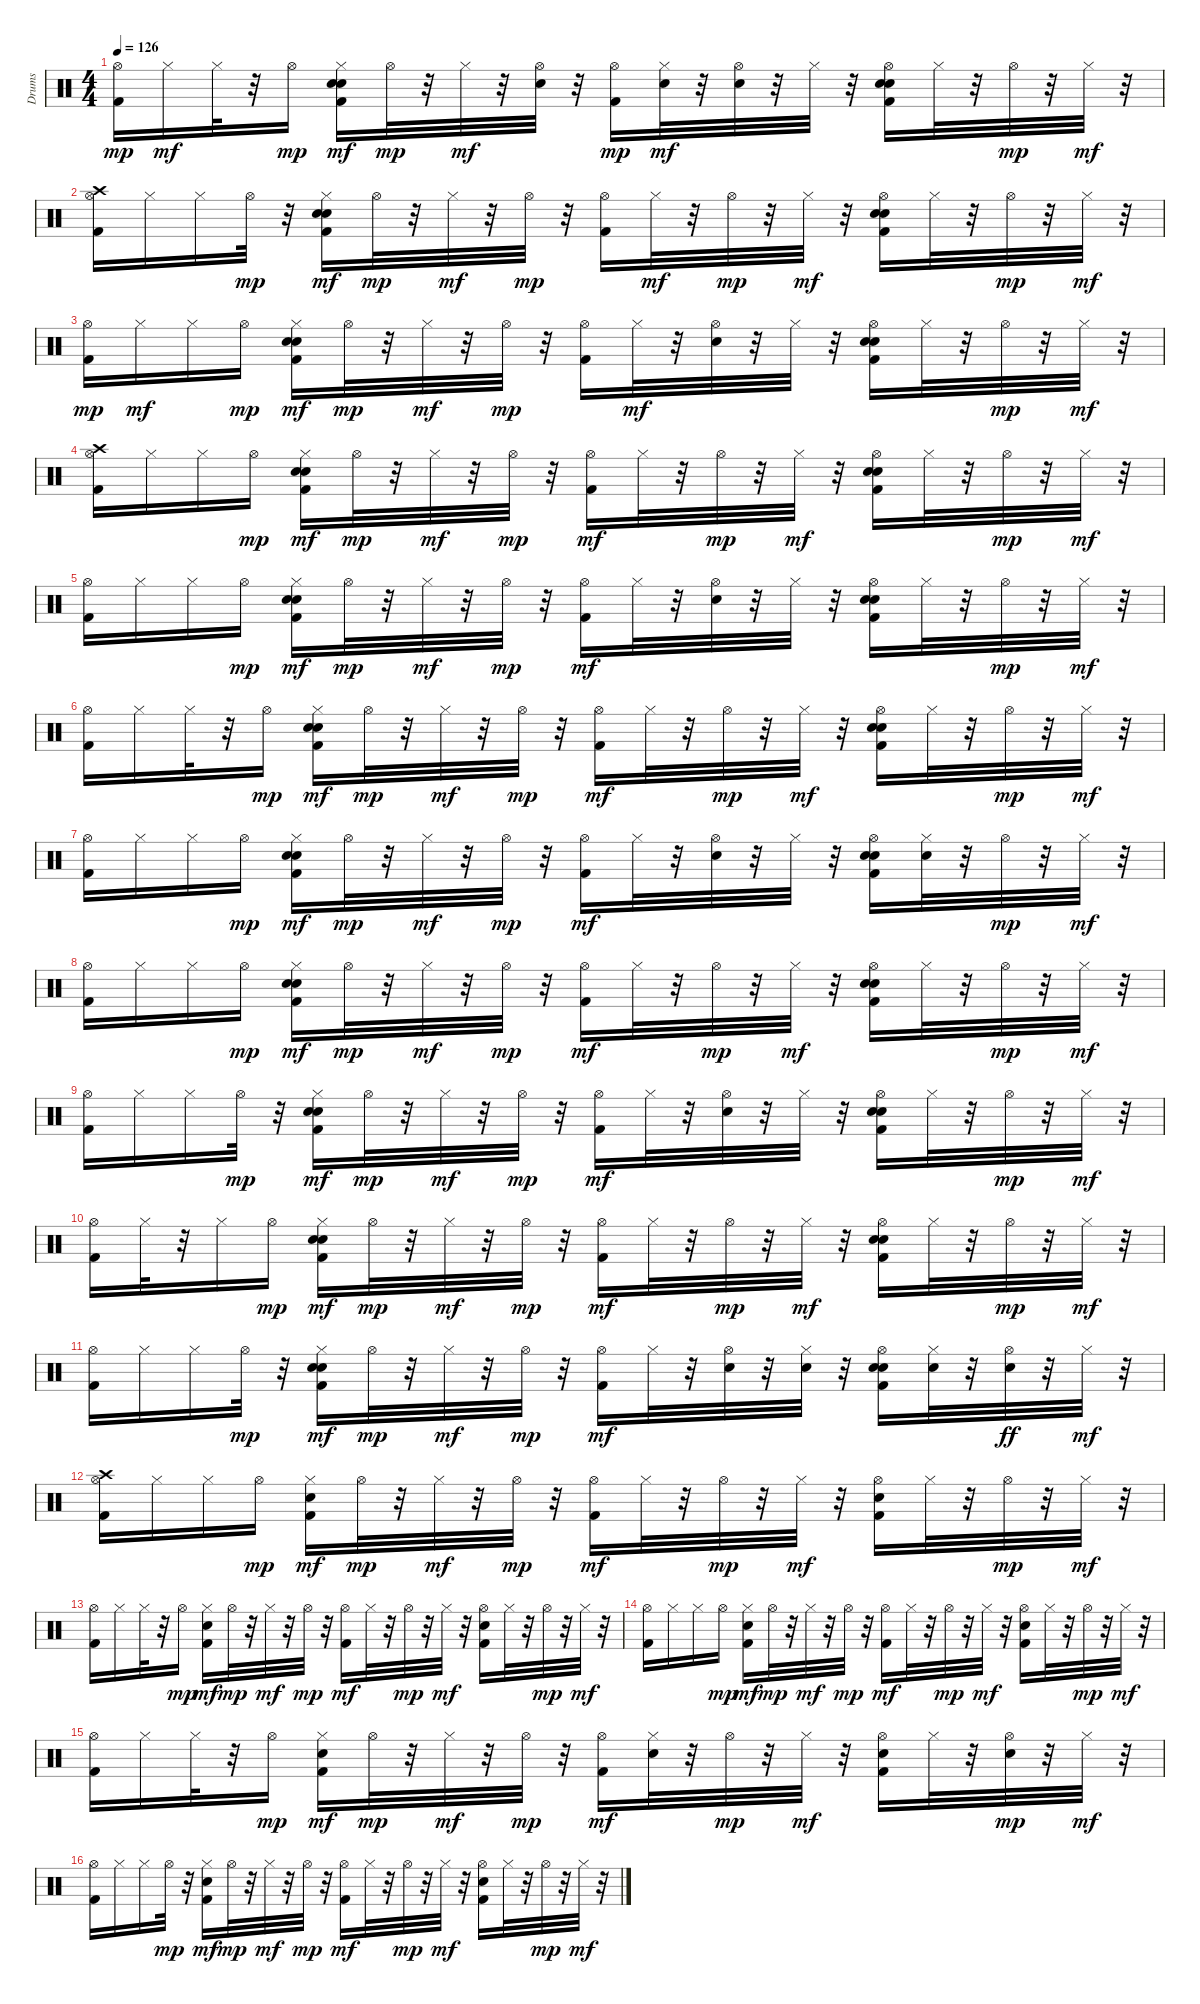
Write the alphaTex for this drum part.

\track ("Drums" "Drums") {instrument percussion}
\staff {score}
\articulation defaults
\ts (4 4)
\tempo 126
\clef neutral
\ks c
("Kick (hit) 2" "Hi-Hat (open)").16{dy mp} "Hi-Hat (closed)".16{dy mf} "Hi-Hat (closed)".32 r.32 "Hi-Hat (open)".16{dy mp} ("Kick (hit) 2" "Hi-Hat (closed)" "Hand Clap (hit)" "Electric Snare (hit)").16{dy mf} "Hi-Hat (open)".32{dy mp} r.32 "Hi-Hat (closed)".32{dy mf} r.32 ("Hi-Hat (open)" "Snare (hit) 2").32 r.32 ("Kick (hit) 2" "Hi-Hat (open)").16{dy mp} ("Hi-Hat (closed)" "Snare (hit) 2").32{dy mf} r.32 ("Hi-Hat (open)" "Hand Clap (hit)").32 r.32 "Hi-Hat (closed)".32 r.32 ("Kick (hit) 2" "Hi-Hat (open)" "Hand Clap (hit)" "Electric Snare (hit)").16 "Hi-Hat (closed)".32 r.32 "Hi-Hat (open)".32{dy mp} r.32 "Hi-Hat (closed)".32{dy mf} r.32 |
("Kick (hit) 2" "Hi-Hat (open)" "Crash high (hit)").16 "Hi-Hat (closed)".16 "Hi-Hat (closed)".16 "Hi-Hat (open)".32{dy mp} r.32 ("Kick (hit) 2" "Hi-Hat (closed)" "Hand Clap (hit)" "Electric Snare (hit)").16{dy mf} "Hi-Hat (open)".32{dy mp} r.32 "Hi-Hat (closed)".32{dy mf} r.32 "Hi-Hat (open)".32{dy mp} r.32 ("Kick (hit) 2" "Hi-Hat (open)").16 "Hi-Hat (closed)".32{dy mf} r.32 "Hi-Hat (open)".32{dy mp} r.32 "Hi-Hat (closed)".32{dy mf} r.32 ("Kick (hit) 2" "Hi-Hat (open)" "Hand Clap (hit)" "Electric Snare (hit)").16 "Hi-Hat (closed)".32 r.32 "Hi-Hat (open)".32{dy mp} r.32 "Hi-Hat (closed)".32{dy mf} r.32 |
("Kick (hit) 2" "Hi-Hat (open)").16{dy mp} "Hi-Hat (closed)".16{dy mf} "Hi-Hat (closed)".16 "Hi-Hat (open)".16{dy mp} ("Kick (hit) 2" "Hi-Hat (closed)" "Hand Clap (hit)" "Electric Snare (hit)").16{dy mf} "Hi-Hat (open)".32{dy mp} r.32 "Hi-Hat (closed)".32{dy mf} r.32 "Hi-Hat (open)".32{dy mp} r.32 ("Kick (hit) 2" "Hi-Hat (open)").16 "Hi-Hat (closed)".32{dy mf} r.32 ("Hi-Hat (open)" "Hand Clap (hit)").32 r.32 "Hi-Hat (closed)".32 r.32 ("Kick (hit) 2" "Hi-Hat (open)" "Hand Clap (hit)" "Electric Snare (hit)").16 "Hi-Hat (closed)".32 r.32 "Hi-Hat (open)".32{dy mp} r.32 "Hi-Hat (closed)".32{dy mf} r.32 |
("Hi-Hat (open)" "Crash high (hit)" "Kick (hit) 2").16 "Hi-Hat (closed)".16 "Hi-Hat (closed)".16 "Hi-Hat (open)".16{dy mp} ("Hi-Hat (closed)" "Hand Clap (hit)" "Kick (hit) 2" "Electric Snare (hit)").16{dy mf} "Hi-Hat (open)".32{dy mp} r.32 "Hi-Hat (closed)".32{dy mf} r.32 "Hi-Hat (open)".32{dy mp} r.32 ("Hi-Hat (open)" "Kick (hit) 2").16{dy mf} "Hi-Hat (closed)".32 r.32 "Hi-Hat (open)".32{dy mp} r.32 "Hi-Hat (closed)".32{dy mf} r.32 ("Hi-Hat (open)" "Hand Clap (hit)" "Kick (hit) 2" "Electric Snare (hit)").16 "Hi-Hat (closed)".32 r.32 "Hi-Hat (open)".32{dy mp} r.32 "Hi-Hat (closed)".32{dy mf} r.32 |
("Hi-Hat (open)" "Kick (hit) 2").16 "Hi-Hat (closed)".16 "Hi-Hat (closed)".16 "Hi-Hat (open)".16{dy mp} ("Hi-Hat (closed)" "Hand Clap (hit)" "Kick (hit) 2" "Electric Snare (hit)").16{dy mf} "Hi-Hat (open)".32{dy mp} r.32 "Hi-Hat (closed)".32{dy mf} r.32 "Hi-Hat (open)".32{dy mp} r.32 ("Hi-Hat (open)" "Kick (hit) 2").16{dy mf} "Hi-Hat (closed)".32 r.32 ("Hi-Hat (open)" "Hand Clap (hit)").32 r.32 "Hi-Hat (closed)".32 r.32 ("Hi-Hat (open)" "Hand Clap (hit)" "Kick (hit) 2" "Electric Snare (hit)").16 "Hi-Hat (closed)".32 r.32 "Hi-Hat (open)".32{dy mp} r.32 "Hi-Hat (closed)".32{dy mf} r.32 |
("Hi-Hat (open)" "Kick (hit) 2").16 "Hi-Hat (closed)".16 "Hi-Hat (closed)".32 r.32 "Hi-Hat (open)".16{dy mp} ("Hi-Hat (closed)" "Hand Clap (hit)" "Kick (hit) 2" "Electric Snare (hit)").16{dy mf} "Hi-Hat (open)".32{dy mp} r.32 "Hi-Hat (closed)".32{dy mf} r.32 "Hi-Hat (open)".32{dy mp} r.32 ("Hi-Hat (open)" "Kick (hit) 2").16{dy mf} "Hi-Hat (closed)".32 r.32 "Hi-Hat (open)".32{dy mp} r.32 "Hi-Hat (closed)".32{dy mf} r.32 ("Hi-Hat (open)" "Hand Clap (hit)" "Kick (hit) 2" "Electric Snare (hit)").16 "Hi-Hat (closed)".32 r.32 "Hi-Hat (open)".32{dy mp} r.32 "Hi-Hat (closed)".32{dy mf} r.32 |
("Hi-Hat (open)" "Kick (hit) 2").16 "Hi-Hat (closed)".16 "Hi-Hat (closed)".16 "Hi-Hat (open)".16{dy mp} ("Hi-Hat (closed)" "Hand Clap (hit)" "Kick (hit) 2" "Electric Snare (hit)").16{dy mf} "Hi-Hat (open)".32{dy mp} r.32 "Hi-Hat (closed)".32{dy mf} r.32 "Hi-Hat (open)".32{dy mp} r.32 ("Hi-Hat (open)" "Kick (hit) 2").16{dy mf} "Hi-Hat (closed)".32 r.32 ("Hi-Hat (open)" "Hand Clap (hit)").32 r.32 "Hi-Hat (closed)".32 r.32 ("Hi-Hat (open)" "Hand Clap (hit)" "Kick (hit) 2" "Electric Snare (hit)").16 ("Hi-Hat (closed)" "Snare (hit) 2").32 r.32 "Hi-Hat (open)".32{dy mp} r.32 "Hi-Hat (closed)".32{dy mf} r.32 |
("Hi-Hat (open)" "Kick (hit) 2").16 "Hi-Hat (closed)".16 "Hi-Hat (closed)".16 "Hi-Hat (open)".16{dy mp} ("Electric Snare (hit)" "Hi-Hat (closed)" "Hand Clap (hit)" "Kick (hit) 2").16{dy mf} "Hi-Hat (open)".32{dy mp} r.32 "Hi-Hat (closed)".32{dy mf} r.32 "Hi-Hat (open)".32{dy mp} r.32 ("Hi-Hat (open)" "Kick (hit) 2").16{dy mf} "Hi-Hat (closed)".32 r.32 "Hi-Hat (open)".32{dy mp} r.32 "Hi-Hat (closed)".32{dy mf} r.32 ("Electric Snare (hit)" "Hi-Hat (open)" "Hand Clap (hit)" "Kick (hit) 2").16 "Hi-Hat (closed)".32 r.32 "Hi-Hat (open)".32{dy mp} r.32 "Hi-Hat (closed)".32{dy mf} r.32 |
("Hi-Hat (open)" "Kick (hit) 2").16 "Hi-Hat (closed)".16 "Hi-Hat (closed)".16 "Hi-Hat (open)".32{dy mp} r.32 ("Electric Snare (hit)" "Hi-Hat (closed)" "Hand Clap (hit)" "Kick (hit) 2").16{dy mf} "Hi-Hat (open)".32{dy mp} r.32 "Hi-Hat (closed)".32{dy mf} r.32 "Hi-Hat (open)".32{dy mp} r.32 ("Hi-Hat (open)" "Kick (hit) 2").16{dy mf} "Hi-Hat (closed)".32 r.32 ("Hi-Hat (open)" "Hand Clap (hit)").32 r.32 "Hi-Hat (closed)".32 r.32 ("Electric Snare (hit)" "Hi-Hat (open)" "Hand Clap (hit)" "Kick (hit) 2").16 "Hi-Hat (closed)".32 r.32 "Hi-Hat (open)".32{dy mp} r.32 "Hi-Hat (closed)".32{dy mf} r.32 |
("Hi-Hat (open)" "Kick (hit) 2").16 "Hi-Hat (closed)".32 r.32 "Hi-Hat (closed)".16 "Hi-Hat (open)".16{dy mp} ("Electric Snare (hit)" "Hi-Hat (closed)" "Hand Clap (hit)" "Kick (hit) 2").16{dy mf} "Hi-Hat (open)".32{dy mp} r.32 "Hi-Hat (closed)".32{dy mf} r.32 "Hi-Hat (open)".32{dy mp} r.32 ("Hi-Hat (open)" "Kick (hit) 2").16{dy mf} "Hi-Hat (closed)".32 r.32 "Hi-Hat (open)".32{dy mp} r.32 "Hi-Hat (closed)".32{dy mf} r.32 ("Electric Snare (hit)" "Hi-Hat (open)" "Hand Clap (hit)" "Kick (hit) 2").16 "Hi-Hat (closed)".32 r.32 "Hi-Hat (open)".32{dy mp} r.32 "Hi-Hat (closed)".32{dy mf} r.32 |
("Hi-Hat (open)" "Kick (hit) 2").16 "Hi-Hat (closed)".16 "Hi-Hat (closed)".16 "Hi-Hat (open)".32{dy mp} r.32 ("Electric Snare (hit)" "Hi-Hat (closed)" "Hand Clap (hit)" "Kick (hit) 2").16{dy mf} "Hi-Hat (open)".32{dy mp} r.32 "Hi-Hat (closed)".32{dy mf} r.32 "Hi-Hat (open)".32{dy mp} r.32 ("Hi-Hat (open)" "Kick (hit) 2").16{dy mf} "Hi-Hat (closed)".32 r.32 ("Hi-Hat (open)" "Hand Clap (hit)").32 r.32 ("Hi-Hat (closed)" "Snare (hit) 2").32 r.32 ("Electric Snare (hit)" "Hi-Hat (open)" "Hand Clap (hit)" "Kick (hit) 2").16 ("Hi-Hat (closed)" "Snare (hit) 2").32 r.32 ("Hi-Hat (open)" "Snare (hit) 2").32{dy ff} r.32 "Hi-Hat (closed)".32{dy mf} r.32 |
("Hi-Hat (open)" "Crash high (hit)" "Kick (hit) 2").16 "Hi-Hat (closed)".16 "Hi-Hat (closed)".16 "Hi-Hat (open)".16{dy mp} ("Electric Snare (hit)" "Hi-Hat (closed)" "Kick (hit) 2").16{dy mf} "Hi-Hat (open)".32{dy mp} r.32 "Hi-Hat (closed)".32{dy mf} r.32 "Hi-Hat (open)".32{dy mp} r.32 ("Hi-Hat (open)" "Kick (hit) 2").16{dy mf} "Hi-Hat (closed)".32 r.32 "Hi-Hat (open)".32{dy mp} r.32 "Hi-Hat (closed)".32{dy mf} r.32 ("Electric Snare (hit)" "Hi-Hat (open)" "Kick (hit) 2").16 "Hi-Hat (closed)".32 r.32 "Hi-Hat (open)".32{dy mp} r.32 "Hi-Hat (closed)".32{dy mf} r.32 |
("Hi-Hat (open)" "Kick (hit) 2").16 "Hi-Hat (closed)".16 "Hi-Hat (closed)".32 r.32 "Hi-Hat (open)".16{dy mp} ("Electric Snare (hit)" "Hi-Hat (closed)" "Kick (hit) 2").16{dy mf} "Hi-Hat (open)".32{dy mp} r.32 "Hi-Hat (closed)".32{dy mf} r.32 "Hi-Hat (open)".32{dy mp} r.32 ("Hi-Hat (open)" "Kick (hit) 2").16{dy mf} "Hi-Hat (closed)".32 r.32 "Hi-Hat (open)".32{dy mp} r.32 "Hi-Hat (closed)".32{dy mf} r.32 ("Electric Snare (hit)" "Hi-Hat (open)" "Kick (hit) 2").16 "Hi-Hat (closed)".32 r.32 "Hi-Hat (open)".32{dy mp} r.32 "Hi-Hat (closed)".32{dy mf} r.32 |
("Hi-Hat (open)" "Kick (hit) 2").16 "Hi-Hat (closed)".16 "Hi-Hat (closed)".16 "Hi-Hat (open)".16{dy mp} ("Electric Snare (hit)" "Hi-Hat (closed)" "Kick (hit) 2").16{dy mf} "Hi-Hat (open)".32{dy mp} r.32 "Hi-Hat (closed)".32{dy mf} r.32 "Hi-Hat (open)".32{dy mp} r.32 ("Hi-Hat (open)" "Kick (hit) 2").16{dy mf} "Hi-Hat (closed)".32 r.32 "Hi-Hat (open)".32{dy mp} r.32 "Hi-Hat (closed)".32{dy mf} r.32 ("Electric Snare (hit)" "Hi-Hat (open)" "Kick (hit) 2").16 "Hi-Hat (closed)".32 r.32 "Hi-Hat (open)".32{dy mp} r.32 "Hi-Hat (closed)".32{dy mf} r.32 |
("Hi-Hat (open)" "Kick (hit) 2").16 "Hi-Hat (closed)".16 "Hi-Hat (closed)".32 r.32 "Hi-Hat (open)".16{dy mp} ("Electric Snare (hit)" "Hi-Hat (closed)" "Kick (hit) 2").16{dy mf} "Hi-Hat (open)".32{dy mp} r.32 "Hi-Hat (closed)".32{dy mf} r.32 "Hi-Hat (open)".32{dy mp} r.32 ("Hi-Hat (open)" "Kick (hit) 2").16{dy mf} ("Hi-Hat (closed)" "Snare (hit) 2").32 r.32 "Hi-Hat (open)".32{dy mp} r.32 "Hi-Hat (closed)".32{dy mf} r.32 ("Hi-Hat (open)" "Kick (hit) 2" "Snare (hit) 2").16 "Hi-Hat (closed)".32 r.32 ("Hi-Hat (open)" "Snare (hit) 2").32{dy mp} r.32 "Hi-Hat (closed)".32{dy mf} r.32 |
("Hi-Hat (open)" "Kick (hit) 2").16 "Hi-Hat (closed)".16 "Hi-Hat (closed)".16 "Hi-Hat (open)".32{dy mp} r.32 ("Electric Snare (hit)" "Hi-Hat (closed)" "Kick (hit) 2").16{dy mf} "Hi-Hat (open)".32{dy mp} r.32 "Hi-Hat (closed)".32{dy mf} r.32 "Hi-Hat (open)".32{dy mp} r.32 ("Hi-Hat (open)" "Kick (hit) 2").16{dy mf} "Hi-Hat (closed)".32 r.32 "Hi-Hat (open)".32{dy mp} r.32 "Hi-Hat (closed)".32{dy mf} r.32 ("Electric Snare (hit)" "Hi-Hat (open)" "Kick (hit) 2").16 "Hi-Hat (closed)".32 r.32 "Hi-Hat (open)".32{dy mp} r.32 "Hi-Hat (closed)".32{dy mf} r.32
